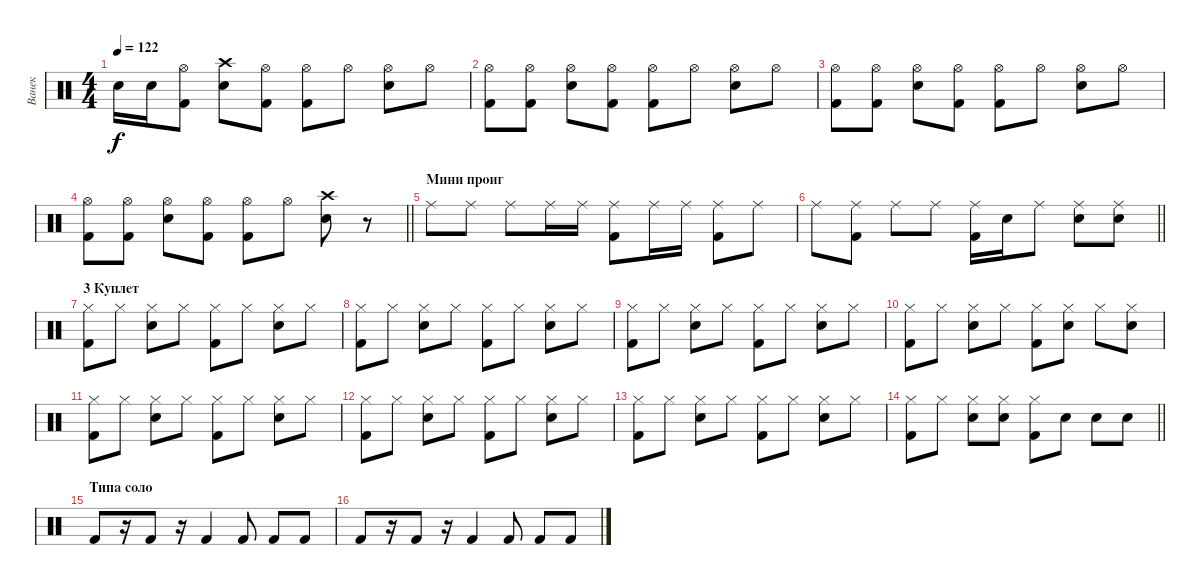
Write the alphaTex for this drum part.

\track ("Ванек" "Ванек") {instrument percussion}
\staff {score}
\articulation defaults
\ts (4 4)
\tempo 122
\clef neutral
\ks c "Electric Snare (hit)".16{dy f} "Electric Snare (hit)".16
("Hi-Hat (open)" "Kick (hit) 2").8 ("Crash high (hit)" "Electric Snare (hit)").8 ("Hi-Hat (open)" "Kick (hit) 2").8 ("Hi-Hat (open)" "Kick (hit) 2").8 "Hi-Hat (open)".8 ("Hi-Hat (open)" "Electric Snare (hit)").8 "Hi-Hat (open)".8 |
("Hi-Hat (open)" "Kick (hit) 2").8 ("Hi-Hat (open)" "Kick (hit) 2").8 ("Hi-Hat (open)" "Electric Snare (hit)").8 ("Hi-Hat (open)" "Kick (hit) 2").8 ("Hi-Hat (open)" "Kick (hit) 2").8 "Hi-Hat (open)".8 ("Hi-Hat (open)" "Electric Snare (hit)").8 "Hi-Hat (open)".8 |
("Hi-Hat (open)" "Kick (hit) 2").8 ("Hi-Hat (open)" "Kick (hit) 2").8 ("Hi-Hat (open)" "Electric Snare (hit)").8 ("Hi-Hat (open)" "Kick (hit) 2").8 ("Hi-Hat (open)" "Kick (hit) 2").8 "Hi-Hat (open)".8 ("Hi-Hat (open)" "Electric Snare (hit)").8 "Hi-Hat (open)".8 |
\barLineRight lightlight
("Hi-Hat (open)" "Kick (hit) 2").8 ("Hi-Hat (open)" "Kick (hit) 2").8 ("Hi-Hat (open)" "Electric Snare (hit)").8 ("Hi-Hat (open)" "Kick (hit) 2").8 ("Hi-Hat (open)" "Kick (hit) 2").8 "Hi-Hat (open)".8 ("Crash high (hit)" "Electric Snare (hit)").8 r.8 |
\section ("" "Мини проиг")
"Ride (middle)".8 "Ride (middle)".8 "Ride (middle)".8 "Ride (middle)".16 "Ride (middle)".16 ("Ride (middle)" "Kick (hit) 2").8 "Ride (middle)".16 "Ride (middle)".16 ("Ride (middle)" "Kick (hit) 2").8 "Ride (middle)".8 |
\barLineRight lightlight "Ride (middle)".8
("Ride (middle)" "Kick (hit) 2").8 "Ride (middle)".8 "Ride (middle)".8 ("Ride (middle)" "Kick (hit) 2").16 "Electric Snare (hit)".16 "Ride (middle)".8 ("Ride (middle)" "Electric Snare (hit)").8 ("Ride (middle)" "Electric Snare (hit)").8 |
\section ("" "3 Куплет")
("Hi-Hat (closed)" "Kick (hit) 2").8 "Hi-Hat (closed)".8 ("Hi-Hat (closed)" "Electric Snare (hit)").8 "Hi-Hat (closed)".8 ("Hi-Hat (closed)" "Kick (hit) 2").8 "Hi-Hat (closed)".8 ("Hi-Hat (closed)" "Electric Snare (hit)").8 "Hi-Hat (closed)".8 |
("Hi-Hat (closed)" "Kick (hit) 2").8 "Hi-Hat (closed)".8 ("Hi-Hat (closed)" "Electric Snare (hit)").8 "Hi-Hat (closed)".8 ("Hi-Hat (closed)" "Kick (hit) 2").8 "Hi-Hat (closed)".8 ("Hi-Hat (closed)" "Electric Snare (hit)").8 "Hi-Hat (closed)".8 |
("Hi-Hat (closed)" "Kick (hit) 2").8 "Hi-Hat (closed)".8 ("Hi-Hat (closed)" "Electric Snare (hit)").8 "Hi-Hat (closed)".8 ("Hi-Hat (closed)" "Kick (hit) 2").8 "Hi-Hat (closed)".8 ("Hi-Hat (closed)" "Electric Snare (hit)").8 "Hi-Hat (closed)".8 |
("Hi-Hat (closed)" "Kick (hit) 2").8 "Hi-Hat (closed)".8 ("Hi-Hat (closed)" "Electric Snare (hit)").8 "Hi-Hat (closed)".8 ("Hi-Hat (closed)" "Kick (hit) 2").8 ("Hi-Hat (closed)" "Electric Snare (hit)").8 "Hi-Hat (closed)".8 ("Hi-Hat (closed)" "Electric Snare (hit)").8 |
("Hi-Hat (closed)" "Kick (hit) 2").8 "Hi-Hat (closed)".8 ("Hi-Hat (closed)" "Electric Snare (hit)").8 "Hi-Hat (closed)".8 ("Hi-Hat (closed)" "Kick (hit) 2").8 "Hi-Hat (closed)".8 ("Hi-Hat (closed)" "Electric Snare (hit)").8 "Hi-Hat (closed)".8 |
("Hi-Hat (closed)" "Kick (hit) 2").8 "Hi-Hat (closed)".8 ("Hi-Hat (closed)" "Electric Snare (hit)").8 "Hi-Hat (closed)".8 ("Hi-Hat (closed)" "Kick (hit) 2").8 "Hi-Hat (closed)".8 ("Hi-Hat (closed)" "Electric Snare (hit)").8 "Hi-Hat (closed)".8 |
("Hi-Hat (closed)" "Kick (hit) 2").8 "Hi-Hat (closed)".8 ("Hi-Hat (closed)" "Electric Snare (hit)").8 "Hi-Hat (closed)".8 ("Hi-Hat (closed)" "Kick (hit) 2").8 "Hi-Hat (closed)".8 ("Hi-Hat (closed)" "Electric Snare (hit)").8 "Hi-Hat (closed)".8 |
\barLineRight lightlight
("Hi-Hat (closed)" "Kick (hit) 2").8 "Hi-Hat (closed)".8 ("Hi-Hat (closed)" "Electric Snare (hit)").8 ("Hi-Hat (closed)" "Electric Snare (hit)").8 ("Hi-Hat (closed)" "Kick (hit) 2").8 "Electric Snare (hit)".8 "Electric Snare (hit)".8 "Electric Snare (hit)".8 |
\section ("" "Типа соло")
"Kick (hit) 2".8 r.16 "Kick (hit) 2".8 r.16 "Kick (hit) 2".4 "Kick (hit) 2".8 "Kick (hit) 2".8 "Kick (hit) 2".8 |
"Kick (hit) 2".8 r.16 "Kick (hit) 2".8 r.16 "Kick (hit) 2".4 "Kick (hit) 2".8 "Kick (hit) 2".8 "Kick (hit) 2".8
